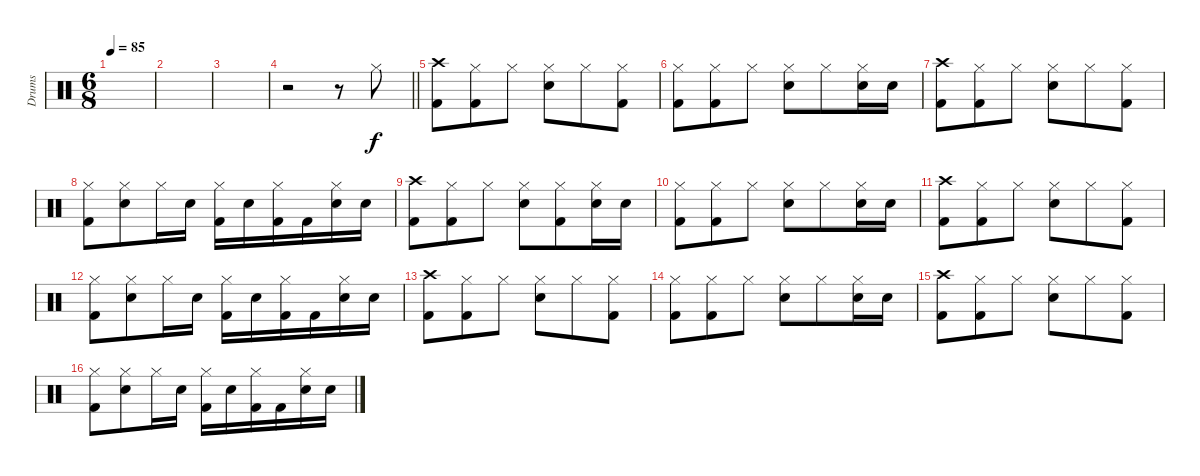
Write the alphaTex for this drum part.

\track ("Drums" "Drums") {instrument percussion}
\staff {score}
\articulation defaults
\ts (6 8)
\tempo 85
\clef neutral
\ks c
|
|
|
\barLineRight lightlight
r.2 r.8 "Hi-Hat (closed)".8 |
("Crash high (hit)" "Kick (hit) 2").8 ("Hi-Hat (closed)" "Kick (hit) 2").8 "Hi-Hat (closed)".8 ("Hi-Hat (closed)" "Snare (hit) 2").8 "Hi-Hat (closed)".8 ("Hi-Hat (closed)" "Kick (hit) 2").8 |
("Hi-Hat (closed)" "Kick (hit) 2").8 ("Hi-Hat (closed)" "Kick (hit) 2").8 "Hi-Hat (closed)".8 ("Hi-Hat (closed)" "Snare (hit) 2").8 "Hi-Hat (closed)".8 ("Hi-Hat (closed)" "Snare (hit) 2").16 "Snare (hit) 2".16 |
("Crash high (hit)" "Kick (hit) 2").8 ("Hi-Hat (closed)" "Kick (hit) 2").8 "Hi-Hat (closed)".8 ("Hi-Hat (closed)" "Snare (hit) 2").8 "Hi-Hat (closed)".8 ("Hi-Hat (closed)" "Kick (hit) 2").8 |
("Hi-Hat (closed)" "Kick (hit) 2").8 ("Hi-Hat (closed)" "Snare (hit) 2").8 "Hi-Hat (closed)".16 "Snare (hit) 2".16 ("Hi-Hat (closed)" "Kick (hit) 2").16 "Snare (hit) 2".16 ("Hi-Hat (closed)" "Kick (hit) 2").16 "Kick (hit) 2".16 ("Hi-Hat (closed)" "Snare (hit) 2").16 "Snare (hit) 2".16 |
("Crash high (hit)" "Kick (hit) 2").8 ("Hi-Hat (closed)" "Kick (hit) 2").8 "Hi-Hat (closed)".8 ("Hi-Hat (closed)" "Snare (hit) 2").8 ("Hi-Hat (closed)" "Kick (hit) 2").8 ("Hi-Hat (closed)" "Snare (hit) 2").16 "Snare (hit) 2".16 |
("Hi-Hat (closed)" "Kick (hit) 2").8 ("Hi-Hat (closed)" "Kick (hit) 2").8 "Hi-Hat (closed)".8 ("Hi-Hat (closed)" "Snare (hit) 2").8 "Hi-Hat (closed)".8 ("Hi-Hat (closed)" "Snare (hit) 2").16 "Snare (hit) 2".16 |
("Crash high (hit)" "Kick (hit) 2").8 ("Hi-Hat (closed)" "Kick (hit) 2").8 "Hi-Hat (closed)".8 ("Hi-Hat (closed)" "Snare (hit) 2").8 "Hi-Hat (closed)".8 ("Hi-Hat (closed)" "Kick (hit) 2").8 |
("Hi-Hat (closed)" "Kick (hit) 2").8 ("Hi-Hat (closed)" "Snare (hit) 2").8 "Hi-Hat (closed)".16 "Snare (hit) 2".16 ("Hi-Hat (closed)" "Kick (hit) 2").16 "Snare (hit) 2".16 ("Hi-Hat (closed)" "Kick (hit) 2").16 "Kick (hit) 2".16 ("Hi-Hat (closed)" "Snare (hit) 2").16 "Snare (hit) 2".16 |
("Crash high (hit)" "Kick (hit) 2").8 ("Hi-Hat (closed)" "Kick (hit) 2").8 "Hi-Hat (closed)".8 ("Hi-Hat (closed)" "Snare (hit) 2").8 "Hi-Hat (closed)".8 ("Hi-Hat (closed)" "Kick (hit) 2").8 |
("Hi-Hat (closed)" "Kick (hit) 2").8 ("Hi-Hat (closed)" "Kick (hit) 2").8 "Hi-Hat (closed)".8 ("Hi-Hat (closed)" "Snare (hit) 2").8 "Hi-Hat (closed)".8 ("Hi-Hat (closed)" "Snare (hit) 2").16 "Snare (hit) 2".16 |
("Crash high (hit)" "Kick (hit) 2").8 ("Hi-Hat (closed)" "Kick (hit) 2").8 "Hi-Hat (closed)".8 ("Hi-Hat (closed)" "Snare (hit) 2").8 "Hi-Hat (closed)".8 ("Hi-Hat (closed)" "Kick (hit) 2").8 |
("Hi-Hat (closed)" "Kick (hit) 2").8 ("Hi-Hat (closed)" "Snare (hit) 2").8 "Hi-Hat (closed)".16 "Snare (hit) 2".16 ("Hi-Hat (closed)" "Kick (hit) 2").16 "Snare (hit) 2".16 ("Hi-Hat (closed)" "Kick (hit) 2").16 "Kick (hit) 2".16 ("Hi-Hat (closed)" "Snare (hit) 2").16 "Snare (hit) 2".16
